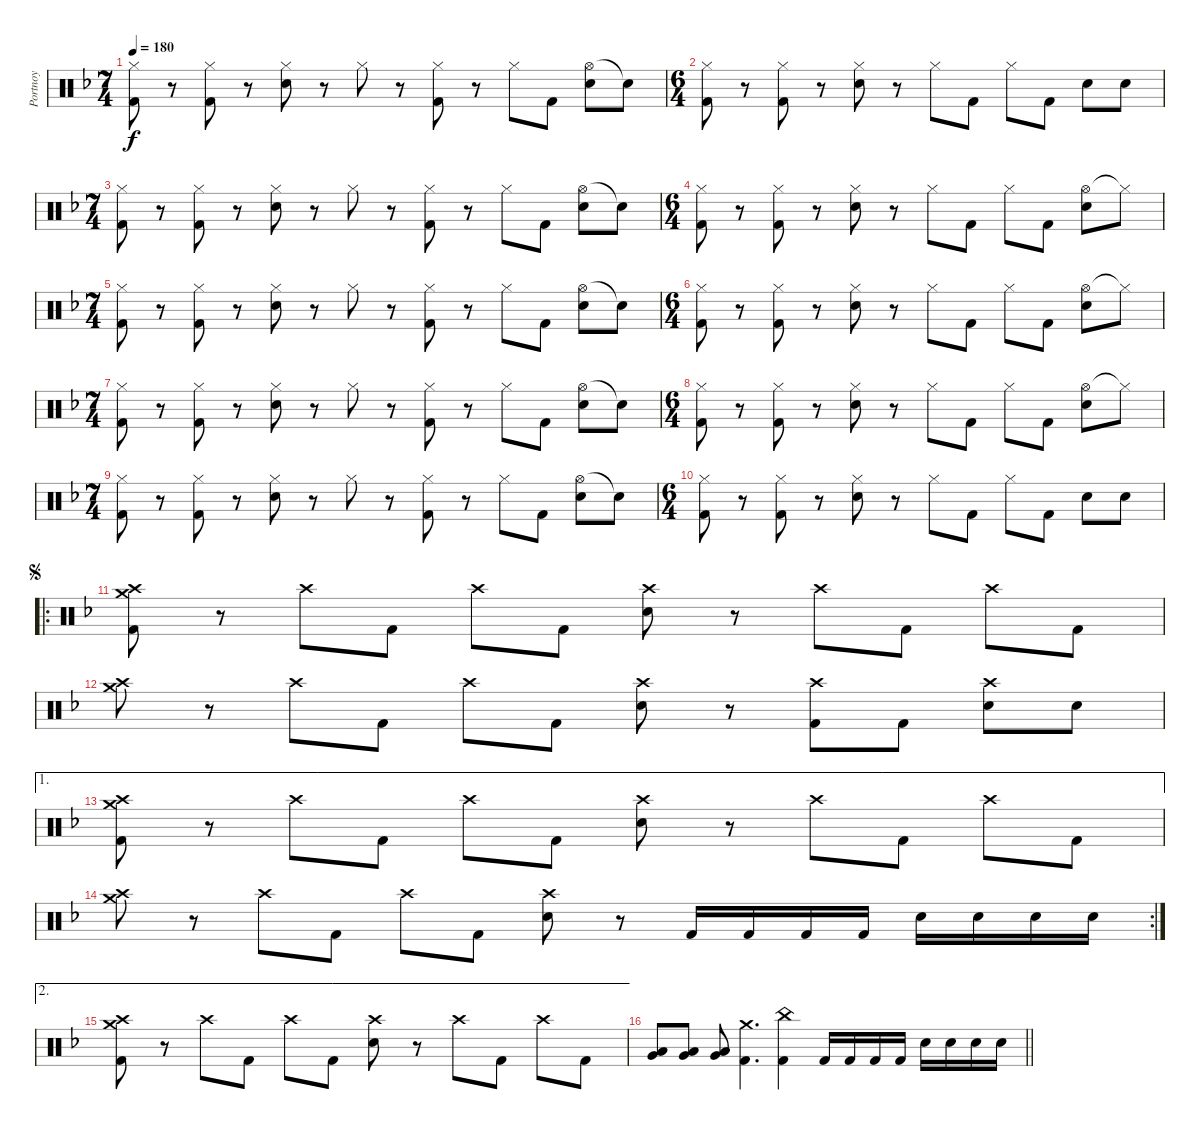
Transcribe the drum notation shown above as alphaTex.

\track ("Portnoy" "Portnoy") {instrument percussion}
\staff {score}
\articulation defaults
\ts (7 4)
\tempo 180
\clef neutral
\ks f
("Hi-Hat (closed)" "Kick (hit) 2").8{dy f} r.8 ("Hi-Hat (closed)" "Kick (hit) 2").8 r.8 ("Hi-Hat (closed)" "Electric Snare (hit)").8 r.8 "Hi-Hat (closed)".8 r.8 ("Hi-Hat (closed)" "Kick (hit) 2").8 r.8 "Hi-Hat (closed)".8 "Kick (hit) 2".8 ("Hi-Hat (open)" "Electric Snare (hit)").8 "Snare (hit)"{t}.8 |
\ts (6 4)
("Hi-Hat (closed)" "Kick (hit) 2").8 r.8 ("Hi-Hat (closed)" "Kick (hit) 2").8 r.8 ("Hi-Hat (closed)" "Electric Snare (hit)").8 r.8 "Hi-Hat (closed)".8 "Kick (hit) 2".8 "Hi-Hat (closed)".8 "Kick (hit) 2".8 "Electric Snare (hit)".8 "Electric Snare (hit)".8 |
\ts (7 4)
("Hi-Hat (closed)" "Kick (hit) 2").8 r.8 ("Hi-Hat (closed)" "Kick (hit) 2").8 r.8 ("Hi-Hat (closed)" "Electric Snare (hit)").8 r.8 "Hi-Hat (closed)".8 r.8 ("Hi-Hat (closed)" "Kick (hit) 2").8 r.8 "Hi-Hat (closed)".8 "Kick (hit) 2".8 ("Hi-Hat (open)" "Electric Snare (hit)").8 "Snare (hit)"{t}.8 |
\ts (6 4)
("Hi-Hat (closed)" "Kick (hit) 2").8 r.8 ("Hi-Hat (closed)" "Kick (hit) 2").8 r.8 ("Hi-Hat (closed)" "Electric Snare (hit)").8 r.8 "Hi-Hat (closed)".8 "Kick (hit) 2".8 "Hi-Hat (closed)".8 "Kick (hit) 2".8 ("Hi-Hat (open)" "Electric Snare (hit)").8 "Hi-Hat (closed)"{t}.8 |
\ts (7 4)
("Hi-Hat (closed)" "Kick (hit) 2").8 r.8 ("Hi-Hat (closed)" "Kick (hit) 2").8 r.8 ("Hi-Hat (closed)" "Electric Snare (hit)").8 r.8 "Hi-Hat (closed)".8 r.8 ("Hi-Hat (closed)" "Kick (hit) 2").8 r.8 "Hi-Hat (closed)".8 "Kick (hit) 2".8 ("Hi-Hat (open)" "Electric Snare (hit)").8 "Snare (hit)"{t}.8 |
\ts (6 4)
("Hi-Hat (closed)" "Kick (hit) 2").8 r.8 ("Hi-Hat (closed)" "Kick (hit) 2").8 r.8 ("Hi-Hat (closed)" "Electric Snare (hit)").8 r.8 "Hi-Hat (closed)".8 "Kick (hit) 2".8 "Hi-Hat (closed)".8 "Kick (hit) 2".8 ("Hi-Hat (open)" "Electric Snare (hit)").8 "Hi-Hat (closed)"{t}.8 |
\ts (7 4)
("Hi-Hat (closed)" "Kick (hit) 2").8 r.8 ("Hi-Hat (closed)" "Kick (hit) 2").8 r.8 ("Hi-Hat (closed)" "Electric Snare (hit)").8 r.8 "Hi-Hat (closed)".8 r.8 ("Hi-Hat (closed)" "Kick (hit) 2").8 r.8 "Hi-Hat (closed)".8 "Kick (hit) 2".8 ("Hi-Hat (open)" "Electric Snare (hit)").8 "Snare (hit)"{t}.8 |
\ts (6 4)
("Hi-Hat (closed)" "Kick (hit) 2").8 r.8 ("Hi-Hat (closed)" "Kick (hit) 2").8 r.8 ("Hi-Hat (closed)" "Electric Snare (hit)").8 r.8 "Hi-Hat (closed)".8 "Kick (hit) 2".8 "Hi-Hat (closed)".8 "Kick (hit) 2".8 ("Hi-Hat (open)" "Electric Snare (hit)").8 "Hi-Hat (closed)"{t}.8 |
\ts (7 4)
("Hi-Hat (closed)" "Kick (hit) 2").8 r.8 ("Hi-Hat (closed)" "Kick (hit) 2").8 r.8 ("Hi-Hat (closed)" "Electric Snare (hit)").8 r.8 "Hi-Hat (closed)".8 r.8 ("Hi-Hat (closed)" "Kick (hit) 2").8 r.8 "Hi-Hat (closed)".8 "Kick (hit) 2".8 ("Hi-Hat (open)" "Electric Snare (hit)").8 "Snare (hit)"{t}.8 |
\ts (6 4)
("Hi-Hat (closed)" "Kick (hit) 2").8 r.8 ("Hi-Hat (closed)" "Kick (hit) 2").8 r.8 ("Hi-Hat (closed)" "Electric Snare (hit)").8 r.8 "Hi-Hat (closed)".8 "Kick (hit) 2".8 "Hi-Hat (closed)".8 "Kick (hit) 2".8 "Electric Snare (hit)".8 "Electric Snare (hit)".8 |
\ro
\jump segno
("Crash high (hit)" "Crash medium (hit)" "Kick (hit) 2").8 r.8 "Crash high (hit)".8 "Kick (hit) 2".8 "Crash high (hit)".8 "Kick (hit) 2".8 ("Crash high (hit)" "Electric Snare (hit)").8 r.8 "Crash high (hit)".8 "Kick (hit) 2".8 "Crash high (hit)".8 "Kick (hit) 2".8 |
("Crash high (hit)" "Crash medium (hit)").8 r.8 "Crash high (hit)".8 "Kick (hit) 2".8 "Crash high (hit)".8 "Kick (hit) 2".8 ("Crash high (hit)" "Electric Snare (hit)").8 r.8 ("Crash high (hit)" "Kick (hit) 2").8 "Kick (hit) 2".8 ("Crash high (hit)" "Electric Snare (hit)").8 "Electric Snare (hit)".8 |
\ae 1
("Crash high (hit)" "Crash medium (hit)" "Kick (hit) 2").8 r.8 "Crash high (hit)".8 "Kick (hit) 2".8 "Crash high (hit)".8 "Kick (hit) 2".8 ("Crash high (hit)" "Electric Snare (hit)").8 r.8 "Crash high (hit)".8 "Kick (hit) 2".8 "Crash high (hit)".8 "Kick (hit) 2".8 |
\rc 2
("Crash high (hit)" "Crash medium (hit)").8 r.8 "Crash high (hit)".8 "Kick (hit) 2".8 "Crash high (hit)".8 "Kick (hit) 2".8 ("Crash high (hit)" "Electric Snare (hit)").8 r.8 "Kick (hit) 2".16 "Kick (hit) 2".16 "Kick (hit) 2".16 "Kick (hit) 2".16 "Electric Snare (hit)".16 "Electric Snare (hit)".16 "Electric Snare (hit)".16 "Electric Snare (hit)".16 |
\ae 2
("Crash high (hit)" "Crash medium (hit)" "Kick (hit) 2").8 r.8 "Crash high (hit)".8 "Kick (hit) 2".8 "Crash high (hit)".8 "Kick (hit) 2".8 ("Crash high (hit)" "Electric Snare (hit)").8 r.8 "Crash high (hit)".8 "Kick (hit) 2".8 "Crash high (hit)".8 "Kick (hit) 2".8 |
\barLineRight lightlight
("Very Low Tom (hit)" "Low Tom (hit)").8 ("Very Low Tom (hit)" "Low Tom (hit)").8 ("Very Low Tom (hit)" "Low Tom (hit)").8 ("Crash medium (hit)" "Kick (hit) 2").4{d} ("China (hit)" "Kick (hit) 2").4 "Kick (hit) 2".16 "Kick (hit) 2".16 "Kick (hit) 2".16 "Kick (hit) 2".16 "Electric Snare (hit)".16 "Electric Snare (hit)".16 "Electric Snare (hit)".16 "Electric Snare (hit)".16
